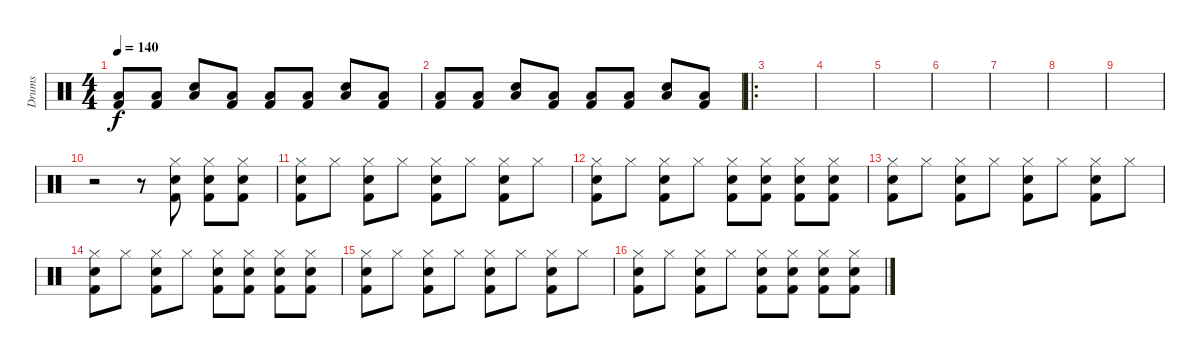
\track ("Drums" "Drums") {instrument percussion}
\staff {score}
\articulation defaults
\ts (4 4)
\tempo 140
\clef neutral
\ks c
("Low Floor Tom (hit)" "Kick (hit) 2").8{dy f} ("Low Floor Tom (hit)" "Kick (hit) 2").8 ("Low Floor Tom (hit)" "Snare (hit) 2").8 ("Low Floor Tom (hit)" "Kick (hit) 2").8 ("Low Floor Tom (hit)" "Kick (hit) 2").8 ("Low Floor Tom (hit)" "Kick (hit) 2").8 ("Low Floor Tom (hit)" "Snare (hit) 2").8 ("Low Floor Tom (hit)" "Kick (hit) 2").8 |
("Low Floor Tom (hit)" "Kick (hit) 2").8 ("Low Floor Tom (hit)" "Kick (hit) 2").8 ("Low Floor Tom (hit)" "Snare (hit) 2").8 ("Low Floor Tom (hit)" "Kick (hit) 2").8 ("Low Floor Tom (hit)" "Kick (hit) 2").8 ("Low Floor Tom (hit)" "Kick (hit) 2").8 ("Low Floor Tom (hit)" "Snare (hit) 2").8 ("Low Floor Tom (hit)" "Kick (hit) 2").8 |
\ro
|
|
|
|
|
|
|
r.2 r.8 ("Hi-Hat (closed)" "Snare (hit) 2" "Kick (hit) 2").8 ("Hi-Hat (closed)" "Snare (hit) 2" "Kick (hit) 2").8 ("Hi-Hat (closed)" "Snare (hit) 2" "Kick (hit) 2").8 |
("Hi-Hat (closed)" "Snare (hit) 2" "Kick (hit) 2").8 "Hi-Hat (closed)".8 ("Hi-Hat (closed)" "Snare (hit) 2" "Kick (hit) 2").8 "Hi-Hat (closed)".8 ("Hi-Hat (closed)" "Snare (hit) 2" "Kick (hit) 2").8 "Hi-Hat (closed)".8 ("Hi-Hat (closed)" "Snare (hit) 2" "Kick (hit) 2").8 "Hi-Hat (closed)".8 |
("Hi-Hat (closed)" "Snare (hit) 2" "Kick (hit) 2").8 "Hi-Hat (closed)".8 ("Hi-Hat (closed)" "Snare (hit) 2" "Kick (hit) 2").8 "Hi-Hat (closed)".8 ("Hi-Hat (closed)" "Snare (hit) 2" "Kick (hit) 2").8 ("Hi-Hat (closed)" "Snare (hit) 2" "Kick (hit) 2").8 ("Hi-Hat (closed)" "Snare (hit) 2" "Kick (hit) 2").8 ("Hi-Hat (closed)" "Snare (hit) 2" "Kick (hit) 2").8 |
("Hi-Hat (closed)" "Snare (hit) 2" "Kick (hit) 2").8 "Hi-Hat (closed)".8 ("Hi-Hat (closed)" "Snare (hit) 2" "Kick (hit) 2").8 "Hi-Hat (closed)".8 ("Hi-Hat (closed)" "Snare (hit) 2" "Kick (hit) 2").8 "Hi-Hat (closed)".8 ("Hi-Hat (closed)" "Snare (hit) 2" "Kick (hit) 2").8 "Hi-Hat (closed)".8 |
("Hi-Hat (closed)" "Snare (hit) 2" "Kick (hit) 2").8 "Hi-Hat (closed)".8 ("Hi-Hat (closed)" "Snare (hit) 2" "Kick (hit) 2").8 "Hi-Hat (closed)".8 ("Hi-Hat (closed)" "Snare (hit) 2" "Kick (hit) 2").8 ("Hi-Hat (closed)" "Snare (hit) 2" "Kick (hit) 2").8 ("Hi-Hat (closed)" "Snare (hit) 2" "Kick (hit) 2").8 ("Hi-Hat (closed)" "Snare (hit) 2" "Kick (hit) 2").8 |
("Hi-Hat (closed)" "Snare (hit) 2" "Kick (hit) 2").8 "Hi-Hat (closed)".8 ("Hi-Hat (closed)" "Snare (hit) 2" "Kick (hit) 2").8 "Hi-Hat (closed)".8 ("Hi-Hat (closed)" "Snare (hit) 2" "Kick (hit) 2").8 "Hi-Hat (closed)".8 ("Hi-Hat (closed)" "Snare (hit) 2" "Kick (hit) 2").8 "Hi-Hat (closed)".8 |
("Hi-Hat (closed)" "Snare (hit) 2" "Kick (hit) 2").8 "Hi-Hat (closed)".8 ("Hi-Hat (closed)" "Snare (hit) 2" "Kick (hit) 2").8 "Hi-Hat (closed)".8 ("Hi-Hat (closed)" "Snare (hit) 2" "Kick (hit) 2").8 ("Hi-Hat (closed)" "Snare (hit) 2" "Kick (hit) 2").8 ("Hi-Hat (closed)" "Snare (hit) 2" "Kick (hit) 2").8 ("Hi-Hat (closed)" "Snare (hit) 2" "Kick (hit) 2").8
